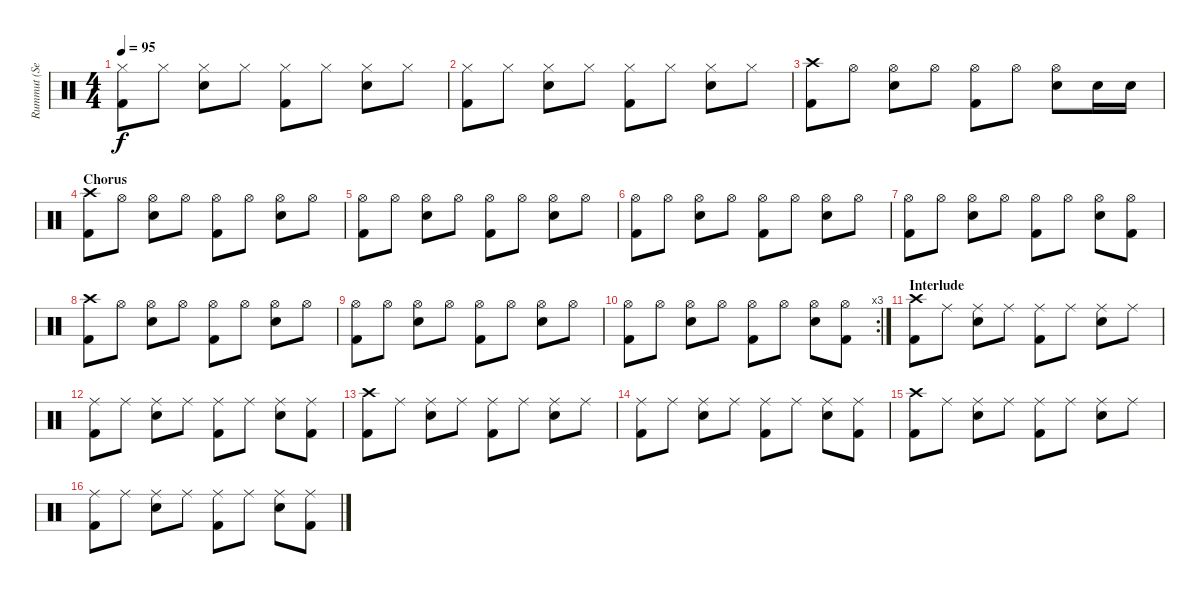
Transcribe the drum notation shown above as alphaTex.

\track ("Rummut (Seppo Pohjolainen)" "Rummut (Se") {instrument percussion}
\staff {score}
\articulation defaults
\ts (4 4)
\tempo 95
\clef neutral
\ks c
("Hi-Hat (closed)" "Kick (hit) 2").8{dy f} "Hi-Hat (closed)".8 ("Hi-Hat (closed)" "Snare (hit) 2").8 "Hi-Hat (closed)".8 ("Hi-Hat (closed)" "Kick (hit) 2").8 "Hi-Hat (closed)".8 ("Hi-Hat (closed)" "Snare (hit) 2").8 "Hi-Hat (closed)".8 |
("Hi-Hat (closed)" "Kick (hit) 2").8 "Hi-Hat (closed)".8 ("Hi-Hat (closed)" "Snare (hit) 2").8 "Hi-Hat (closed)".8 ("Hi-Hat (closed)" "Kick (hit) 2").8 "Hi-Hat (closed)".8 ("Hi-Hat (closed)" "Snare (hit) 2").8 "Hi-Hat (closed)".8 |
("Crash high (hit)" "Kick (hit) 2").8 "Hi-Hat (open)".8 ("Hi-Hat (open)" "Snare (hit) 2").8 "Hi-Hat (open)".8 ("Hi-Hat (open)" "Kick (hit) 2").8 "Hi-Hat (open)".8 ("Hi-Hat (open)" "Snare (hit) 2").8 "Snare (hit) 2".16 "Snare (hit) 2".16 |
\section ("" "Chorus")
("Crash high (hit)" "Kick (hit) 2").8 "Hi-Hat (open)".8 ("Hi-Hat (open)" "Snare (hit) 2").8 "Hi-Hat (open)".8 ("Hi-Hat (open)" "Kick (hit) 2").8 "Hi-Hat (open)".8 ("Hi-Hat (open)" "Snare (hit) 2").8 "Hi-Hat (open)".8 |
("Hi-Hat (open)" "Kick (hit) 2").8 "Hi-Hat (open)".8 ("Hi-Hat (open)" "Snare (hit) 2").8 "Hi-Hat (open)".8 ("Hi-Hat (open)" "Kick (hit) 2").8 "Hi-Hat (open)".8 ("Hi-Hat (open)" "Snare (hit) 2").8 "Hi-Hat (open)".8 |
("Hi-Hat (open)" "Kick (hit) 2").8 "Hi-Hat (open)".8 ("Hi-Hat (open)" "Snare (hit) 2").8 "Hi-Hat (open)".8 ("Hi-Hat (open)" "Kick (hit) 2").8 "Hi-Hat (open)".8 ("Hi-Hat (open)" "Snare (hit) 2").8 "Hi-Hat (open)".8 |
("Hi-Hat (open)" "Kick (hit) 2").8 "Hi-Hat (open)".8 ("Hi-Hat (open)" "Snare (hit) 2").8 "Hi-Hat (open)".8 ("Hi-Hat (open)" "Kick (hit) 2").8 "Hi-Hat (open)".8 ("Hi-Hat (open)" "Snare (hit) 2").8 ("Hi-Hat (open)" "Kick (hit) 2").8 |
("Crash high (hit)" "Kick (hit) 2").8 "Hi-Hat (open)".8 ("Hi-Hat (open)" "Snare (hit) 2").8 "Hi-Hat (open)".8 ("Hi-Hat (open)" "Kick (hit) 2").8 "Hi-Hat (open)".8 ("Hi-Hat (open)" "Snare (hit) 2").8 "Hi-Hat (open)".8 |
("Hi-Hat (open)" "Kick (hit) 2").8 "Hi-Hat (open)".8 ("Hi-Hat (open)" "Snare (hit) 2").8 "Hi-Hat (open)".8 ("Hi-Hat (open)" "Kick (hit) 2").8 "Hi-Hat (open)".8 ("Hi-Hat (open)" "Snare (hit) 2").8 "Hi-Hat (open)".8 |
\rc 3
("Hi-Hat (open)" "Kick (hit) 2").8 "Hi-Hat (open)".8 ("Hi-Hat (open)" "Snare (hit) 2").8 "Hi-Hat (open)".8 ("Hi-Hat (open)" "Kick (hit) 2").8 "Hi-Hat (open)".8 ("Hi-Hat (open)" "Snare (hit) 2").8 ("Hi-Hat (open)" "Kick (hit) 2").8 |
\section ("" "Interlude")
("Crash high (hit)" "Kick (hit) 2").8 "Ride (middle)".8 ("Ride (middle)" "Snare (hit) 2").8 "Ride (middle)".8 ("Ride (middle)" "Kick (hit) 2").8 "Ride (middle)".8 ("Ride (middle)" "Snare (hit) 2").8 "Ride (middle)".8 |
("Ride (middle)" "Kick (hit) 2").8 "Ride (middle)".8 ("Ride (middle)" "Snare (hit) 2").8 "Ride (middle)".8 ("Ride (middle)" "Kick (hit) 2").8 "Ride (middle)".8 ("Ride (middle)" "Snare (hit) 2").8 ("Ride (middle)" "Kick (hit) 2").8 |
("Crash high (hit)" "Kick (hit) 2").8 "Ride (middle)".8 ("Ride (middle)" "Snare (hit) 2").8 "Ride (middle)".8 ("Ride (middle)" "Kick (hit) 2").8 "Ride (middle)".8 ("Ride (middle)" "Snare (hit) 2").8 "Ride (middle)".8 |
("Ride (middle)" "Kick (hit) 2").8 "Ride (middle)".8 ("Ride (middle)" "Snare (hit) 2").8 "Ride (middle)".8 ("Ride (middle)" "Kick (hit) 2").8 "Ride (middle)".8 ("Ride (middle)" "Snare (hit) 2").8 ("Ride (middle)" "Kick (hit) 2").8 |
("Crash high (hit)" "Kick (hit) 2").8 "Ride (middle)".8 ("Ride (middle)" "Snare (hit) 2").8 "Ride (middle)".8 ("Ride (middle)" "Kick (hit) 2").8 "Ride (middle)".8 ("Ride (middle)" "Snare (hit) 2").8 "Ride (middle)".8 |
("Ride (middle)" "Kick (hit) 2").8 "Ride (middle)".8 ("Ride (middle)" "Snare (hit) 2").8 "Ride (middle)".8 ("Ride (middle)" "Kick (hit) 2").8 "Ride (middle)".8 ("Ride (middle)" "Snare (hit) 2").8 ("Ride (middle)" "Kick (hit) 2").8
